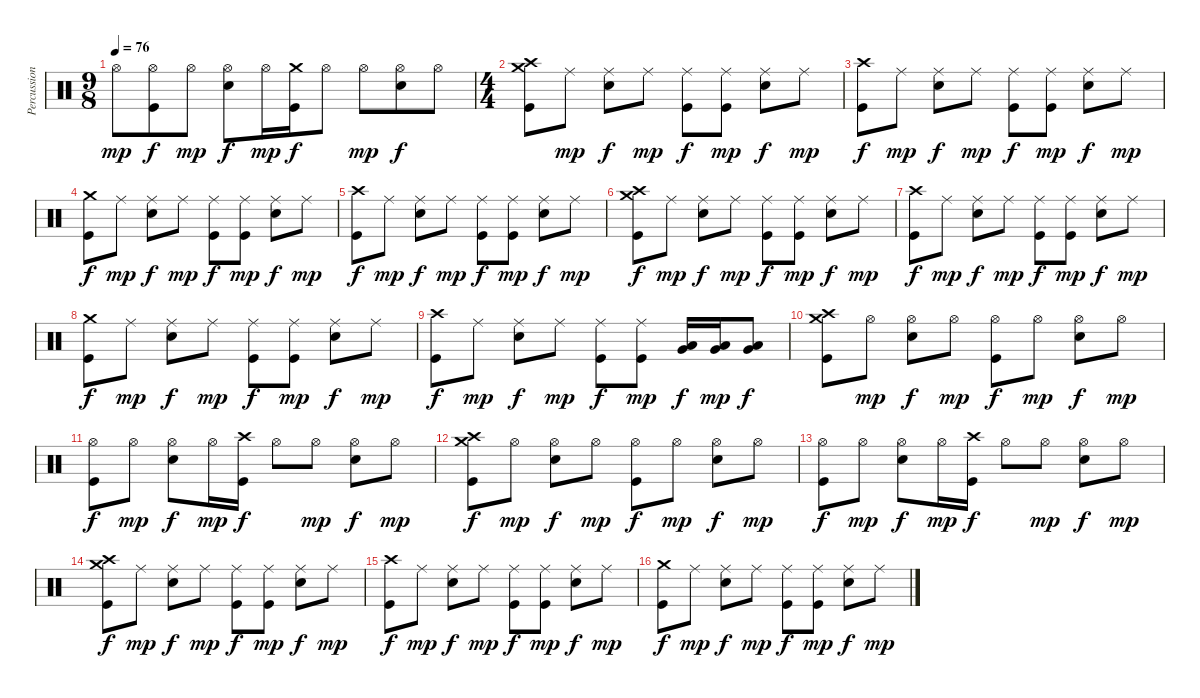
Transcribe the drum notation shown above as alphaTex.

\track ("Percussion" "Percussion") {instrument percussion}
\staff {score}
\articulation defaults
\ts (9 8)
\tempo 76
\clef neutral
\ks c "Hi-Hat (open)".8{dy mp}
("Hi-Hat (open)" "Kick (hit)").8{dy f} "Hi-Hat (open)".8{dy mp} ("Hi-Hat (open)" "Electric Snare (hit)").8{dy f} "Hi-Hat (open)".16{dy mp} ("Crash medium (hit)" "Kick (hit)").16{dy f} "Hi-Hat (open)".8 "Hi-Hat (open)".8{dy mp} ("Hi-Hat (open)" "Electric Snare (hit)").8{dy f} "Hi-Hat (open)".8 |
\ts (4 4)
("Crash medium (hit)" "Crash high (hit)" "Kick (hit)").8 "Ride (middle)".8{dy mp} ("Ride (middle)" "Electric Snare (hit)").8{dy f} "Ride (middle)".8{dy mp} ("Ride (middle)" "Kick (hit)").8{dy f} ("Ride (middle)" "Kick (hit)").8{dy mp} ("Ride (middle)" "Electric Snare (hit)").8{dy f} "Ride (middle)".8{dy mp} |
("Crash high (hit)" "Kick (hit)").8{dy f} "Ride (middle)".8{dy mp} ("Ride (middle)" "Electric Snare (hit)").8{dy f} "Ride (middle)".8{dy mp} ("Ride (middle)" "Kick (hit)").8{dy f} ("Ride (middle)" "Kick (hit)").8{dy mp} ("Ride (middle)" "Electric Snare (hit)").8{dy f} "Ride (middle)".8{dy mp} |
("Crash medium (hit)" "Kick (hit)").8{dy f} "Ride (middle)".8{dy mp} ("Ride (middle)" "Electric Snare (hit)").8{dy f} "Ride (middle)".8{dy mp} ("Ride (middle)" "Kick (hit)").8{dy f} ("Ride (middle)" "Kick (hit)").8{dy mp} ("Ride (middle)" "Electric Snare (hit)").8{dy f} "Ride (middle)".8{dy mp} |
("Crash high (hit)" "Kick (hit)").8{dy f} "Ride (middle)".8{dy mp} ("Ride (middle)" "Electric Snare (hit)").8{dy f} "Ride (middle)".8{dy mp} ("Ride (middle)" "Kick (hit)").8{dy f} ("Ride (middle)" "Kick (hit)").8{dy mp} ("Ride (middle)" "Electric Snare (hit)").8{dy f} "Ride (middle)".8{dy mp} |
("Crash medium (hit)" "Crash high (hit)" "Kick (hit)").8{dy f} "Ride (middle)".8{dy mp} ("Ride (middle)" "Electric Snare (hit)").8{dy f} "Ride (middle)".8{dy mp} ("Ride (middle)" "Kick (hit)").8{dy f} ("Ride (middle)" "Kick (hit)").8{dy mp} ("Ride (middle)" "Electric Snare (hit)").8{dy f} "Ride (middle)".8{dy mp} |
("Crash high (hit)" "Kick (hit)").8{dy f} "Ride (middle)".8{dy mp} ("Ride (middle)" "Electric Snare (hit)").8{dy f} "Ride (middle)".8{dy mp} ("Ride (middle)" "Kick (hit)").8{dy f} ("Ride (middle)" "Kick (hit)").8{dy mp} ("Ride (middle)" "Electric Snare (hit)").8{dy f} "Ride (middle)".8{dy mp} |
("Crash medium (hit)" "Kick (hit)").8{dy f} "Ride (middle)".8{dy mp} ("Ride (middle)" "Electric Snare (hit)").8{dy f} "Ride (middle)".8{dy mp} ("Ride (middle)" "Kick (hit)").8{dy f} ("Ride (middle)" "Kick (hit)").8{dy mp} ("Ride (middle)" "Electric Snare (hit)").8{dy f} "Ride (middle)".8{dy mp} |
("Crash high (hit)" "Kick (hit)").8{dy f} "Ride (middle)".8{dy mp} ("Ride (middle)" "Electric Snare (hit)").8{dy f} "Ride (middle)".8{dy mp} ("Ride (middle)" "Kick (hit)").8{dy f} ("Ride (middle)" "Kick (hit)").8{dy mp} ("Low Tom (hit)" "Very Low Tom (hit)").16{dy f} ("Low Tom (hit)" "Very Low Tom (hit)").16{dy mp} ("Low Tom (hit)" "Very Low Tom (hit)").8{dy f} |
("Crash high (hit)" "Crash medium (hit)" "Kick (hit)").8 "Hi-Hat (open)".8{dy mp} ("Hi-Hat (open)" "Electric Snare (hit)").8{dy f} "Hi-Hat (open)".8{dy mp} ("Hi-Hat (open)" "Kick (hit)").8{dy f} "Hi-Hat (open)".8{dy mp} ("Hi-Hat (open)" "Electric Snare (hit)").8{dy f} "Hi-Hat (open)".8{dy mp} |
("Hi-Hat (open)" "Kick (hit)").8{dy f} "Hi-Hat (open)".8{dy mp} ("Hi-Hat (open)" "Electric Snare (hit)").8{dy f} "Hi-Hat (open)".16{dy mp} ("Crash high (hit)" "Kick (hit)").16{dy f} "Hi-Hat (open)".8 "Hi-Hat (open)".8{dy mp} ("Hi-Hat (open)" "Electric Snare (hit)").8{dy f} "Hi-Hat (open)".8{dy mp} |
("Crash high (hit)" "Crash medium (hit)" "Kick (hit)").8{dy f} "Hi-Hat (open)".8{dy mp} ("Hi-Hat (open)" "Electric Snare (hit)").8{dy f} "Hi-Hat (open)".8{dy mp} ("Hi-Hat (open)" "Kick (hit)").8{dy f} "Hi-Hat (open)".8{dy mp} ("Hi-Hat (open)" "Electric Snare (hit)").8{dy f} "Hi-Hat (open)".8{dy mp} |
("Hi-Hat (open)" "Kick (hit)").8{dy f} "Hi-Hat (open)".8{dy mp} ("Hi-Hat (open)" "Electric Snare (hit)").8{dy f} "Hi-Hat (open)".16{dy mp} ("Crash high (hit)" "Kick (hit)").16{dy f} "Hi-Hat (open)".8 "Hi-Hat (open)".8{dy mp} ("Hi-Hat (open)" "Electric Snare (hit)").8{dy f} "Hi-Hat (open)".8{dy mp} |
("Crash medium (hit)" "Crash high (hit)" "Kick (hit)").8{dy f} "Ride (middle)".8{dy mp} ("Ride (middle)" "Electric Snare (hit)").8{dy f} "Ride (middle)".8{dy mp} ("Ride (middle)" "Kick (hit)").8{dy f} ("Ride (middle)" "Kick (hit)").8{dy mp} ("Ride (middle)" "Electric Snare (hit)").8{dy f} "Ride (middle)".8{dy mp} |
("Crash high (hit)" "Kick (hit)").8{dy f} "Ride (middle)".8{dy mp} ("Ride (middle)" "Electric Snare (hit)").8{dy f} "Ride (middle)".8{dy mp} ("Ride (middle)" "Kick (hit)").8{dy f} ("Ride (middle)" "Kick (hit)").8{dy mp} ("Ride (middle)" "Electric Snare (hit)").8{dy f} "Ride (middle)".8{dy mp} |
("Crash medium (hit)" "Kick (hit)").8{dy f} "Ride (middle)".8{dy mp} ("Ride (middle)" "Electric Snare (hit)").8{dy f} "Ride (middle)".8{dy mp} ("Ride (middle)" "Kick (hit)").8{dy f} ("Ride (middle)" "Kick (hit)").8{dy mp} ("Ride (middle)" "Electric Snare (hit)").8{dy f} "Ride (middle)".8{dy mp}
